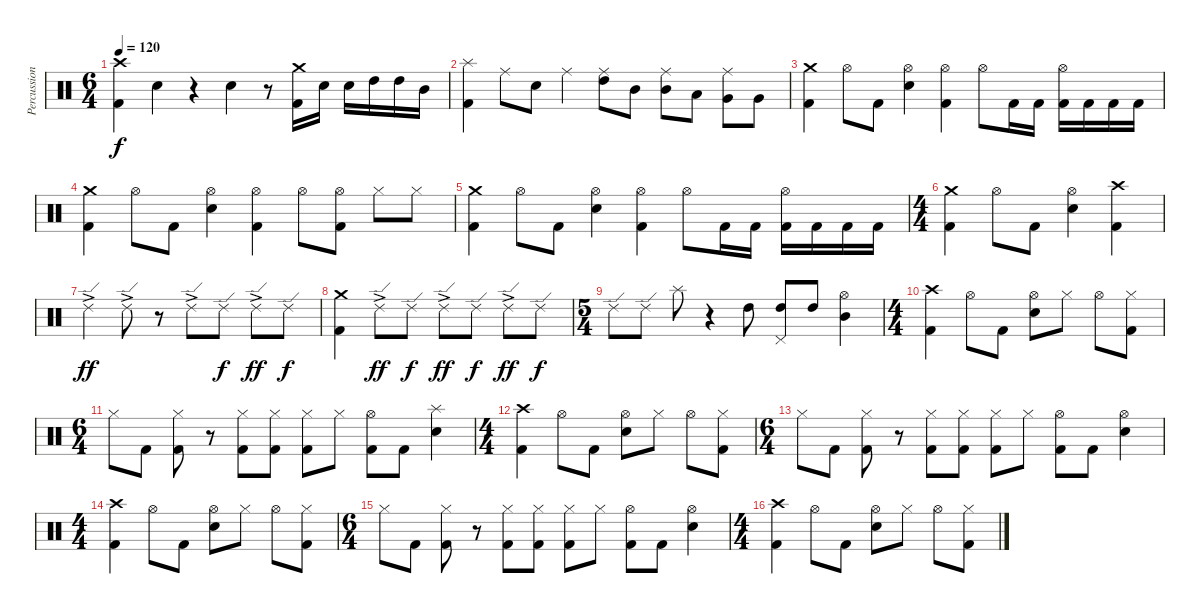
\track ("Percussion" "Percussion") {instrument percussion}
\staff {score}
\articulation defaults
\ts (6 4)
\tempo 120
\clef neutral
\ks c
("Crash high (hit)" "Kick (hit) 2").4{dy f} "Electric Snare (hit)".4 r.4 "Electric Snare (hit)".4 r.8 ("Crash medium (hit)" "Kick (hit) 2").16 "Electric Snare (hit)".16 "Electric Snare (hit)".16 "High Tom (hit)".16 "High Tom (hit)".16 "Mid Tom (hit)".16 |
("Splash (hit)" "Kick (hit) 2").4 "Ride (middle)".8 "Electric Snare (hit)".8 "Ride (middle)".4 ("Ride (middle)" "High Tom (hit)").8 "Mid Tom (hit)".8 ("Ride (middle)" "Mid Tom (hit)").8 "Low Tom (hit)".8 ("Ride (middle)" "Very Low Tom (hit)").8 "Very Low Tom (hit)".8 |
("Crash medium (hit)" "Kick (hit) 2").4 "Hi-Hat (open)".8 "Kick (hit) 2".8 ("Hi-Hat (open)" "Electric Snare (hit)").4 ("Hi-Hat (open)" "Kick (hit) 2").4 "Hi-Hat (open)".8 "Kick (hit) 2".16 "Kick (hit) 2".16 ("Hi-Hat (open)" "Kick (hit) 2").16 "Kick (hit) 2".16 "Kick (hit) 2".16 "Kick (hit) 2".16 |
("Crash medium (hit)" "Kick (hit) 2").4 "Hi-Hat (open)".8 "Kick (hit) 2".8 ("Hi-Hat (open)" "Electric Snare (hit)").4 ("Hi-Hat (open)" "Kick (hit) 2").4 "Hi-Hat (open)".8 ("Hi-Hat (open)" "Kick (hit) 2").8 "Hi-Hat (closed)".8 "Hi-Hat (closed)".8 |
("Crash medium (hit)" "Kick (hit) 2").4 "Hi-Hat (open)".8 "Kick (hit) 2".8 ("Hi-Hat (open)" "Electric Snare (hit)").4 ("Hi-Hat (open)" "Kick (hit) 2").4 "Hi-Hat (open)".8 "Kick (hit) 2".16 "Kick (hit) 2".16 ("Hi-Hat (open)" "Kick (hit) 2").16 "Kick (hit) 2".16 "Kick (hit) 2".16 "Kick (hit) 2".16 |
\ts (4 4)
("Crash medium (hit)" "Kick (hit) 2").4 "Hi-Hat (open)".8 "Kick (hit) 2".8 ("Hi-Hat (open)" "Electric Snare (hit)").4 ("Crash high (hit)" "Kick (hit) 2").4 |
"Ride (edge) 2"{ac}.4{dy ff} "Ride (edge) 2"{ac}.8 r.8 "Ride (edge) 2"{ac}.8 "Ride (edge) 2".8{dy f} "Ride (edge) 2"{ac}.8{dy ff} "Ride (edge) 2".8{dy f} |
("Crash medium (hit)" "Kick (hit) 2").4 "Ride (edge) 2"{ac}.8{dy ff} "Ride (edge) 2".8{dy f} "Ride (edge) 2"{ac}.8{dy ff} "Ride (edge) 2".8{dy f} "Ride (edge) 2"{ac}.8{dy ff} "Ride (edge) 2".8{dy f} |
\ts (5 4)
"Ride (edge) 2".8 "Ride (edge) 2".8 "Splash (hit)".8 r.4 "High Tom (hit)".8 ("High Tom (hit)" "Pedal Hi-Hat (hit)").8 "High Tom (hit)".8 ("Mid Tom (hit)" "Hi-Hat (open)").4 |
\ts (4 4)
("Crash high (hit)" "Kick (hit) 2").4 "Hi-Hat (open)".8 "Kick (hit) 2".8 ("Electric Snare (hit)" "Hi-Hat (open)").8 "Hi-Hat (closed)".8 "Hi-Hat (open)".8 ("Hi-Hat (closed)" "Kick (hit) 2").8 |
\ts (6 4)
"Hi-Hat (closed)".8 "Kick (hit) 2".8 ("Hi-Hat (closed)" "Kick (hit) 2").8 r.8 ("Hi-Hat (closed)" "Kick (hit) 2").8 ("Hi-Hat (closed)" "Kick (hit) 2").8 ("Hi-Hat (closed)" "Kick (hit) 2").8 "Hi-Hat (closed)".8 ("Hi-Hat (open)" "Kick (hit) 2").8 "Kick (hit) 2".8 ("Splash (hit)" "Electric Snare (hit)").4 |
\ts (4 4)
("Crash high (hit)" "Kick (hit) 2").4 "Hi-Hat (open)".8 "Kick (hit) 2".8 ("Electric Snare (hit)" "Hi-Hat (open)").8 "Hi-Hat (closed)".8 "Hi-Hat (open)".8 ("Hi-Hat (closed)" "Kick (hit) 2").8 |
\ts (6 4)
"Hi-Hat (closed)".8 "Kick (hit) 2".8 ("Hi-Hat (closed)" "Kick (hit) 2").8 r.8 ("Hi-Hat (closed)" "Kick (hit) 2").8 ("Hi-Hat (closed)" "Kick (hit) 2").8 ("Hi-Hat (closed)" "Kick (hit) 2").8 "Hi-Hat (closed)".8 ("Hi-Hat (open)" "Kick (hit) 2").8 "Kick (hit) 2".8 ("Electric Snare (hit)" "Hi-Hat (open)").4 |
\ts (4 4)
("Crash high (hit)" "Kick (hit) 2").4 "Hi-Hat (open)".8 "Kick (hit) 2".8 ("Electric Snare (hit)" "Hi-Hat (open)").8 "Hi-Hat (closed)".8 "Hi-Hat (open)".8 ("Hi-Hat (closed)" "Kick (hit) 2").8 |
\ts (6 4)
"Hi-Hat (closed)".8 "Kick (hit) 2".8 ("Hi-Hat (closed)" "Kick (hit) 2").8 r.8 ("Hi-Hat (closed)" "Kick (hit) 2").8 ("Hi-Hat (closed)" "Kick (hit) 2").8 ("Hi-Hat (closed)" "Kick (hit) 2").8 "Hi-Hat (closed)".8 ("Hi-Hat (open)" "Kick (hit) 2").8 "Kick (hit) 2".8 ("Electric Snare (hit)" "Hi-Hat (open)").4 |
\ts (4 4)
("Crash high (hit)" "Kick (hit) 2").4 "Hi-Hat (open)".8 "Kick (hit) 2".8 ("Electric Snare (hit)" "Hi-Hat (open)").8 "Hi-Hat (closed)".8 "Hi-Hat (open)".8 ("Hi-Hat (closed)" "Kick (hit) 2").8
